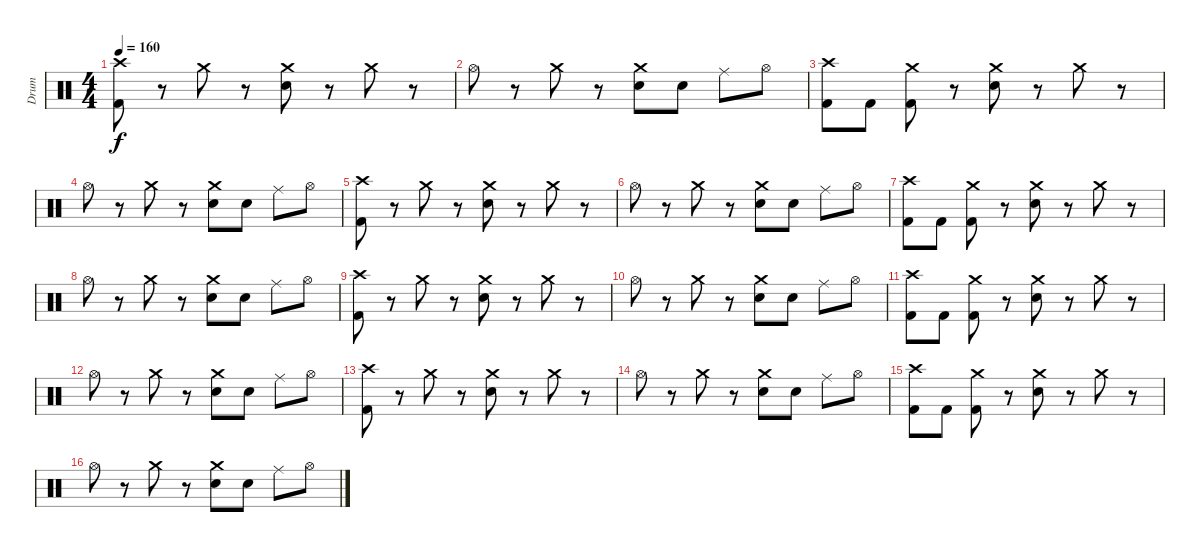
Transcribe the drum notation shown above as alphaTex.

\track ("Drum" "Drum") {instrument percussion}
\staff {score}
\articulation defaults
\ts (4 4)
\tempo 160
\clef neutral
\ks c
("Crash high (hit)" "Kick (hit) 2").8{dy f} r.8 "Crash medium (hit)".8 r.8 ("Crash medium (hit)" "Electric Snare (hit)").8 r.8 "Crash medium (hit)".8 r.8 |
"Hi-Hat (open)".8 r.8 "Crash medium (hit)".8 r.8 ("Crash medium (hit)" "Electric Snare (hit)").8 "Electric Snare (hit)".8 "Ride (middle)".8 "Hi-Hat (open)".8 |
("Crash high (hit)" "Kick (hit) 2").8 "Kick (hit) 2".8 ("Crash medium (hit)" "Kick (hit) 2").8 r.8 ("Crash medium (hit)" "Electric Snare (hit)").8 r.8 "Crash medium (hit)".8 r.8 |
"Hi-Hat (open)".8 r.8 "Crash medium (hit)".8 r.8 ("Crash medium (hit)" "Electric Snare (hit)").8 "Electric Snare (hit)".8 "Ride (middle)".8 "Hi-Hat (open)".8 |
("Crash high (hit)" "Kick (hit) 2").8 r.8 "Crash medium (hit)".8 r.8 ("Crash medium (hit)" "Electric Snare (hit)").8 r.8 "Crash medium (hit)".8 r.8 |
"Hi-Hat (open)".8 r.8 "Crash medium (hit)".8 r.8 ("Crash medium (hit)" "Electric Snare (hit)").8 "Electric Snare (hit)".8 "Ride (middle)".8 "Hi-Hat (open)".8 |
("Crash high (hit)" "Kick (hit) 2").8 "Kick (hit) 2".8 ("Crash medium (hit)" "Kick (hit) 2").8 r.8 ("Crash medium (hit)" "Electric Snare (hit)").8 r.8 "Crash medium (hit)".8 r.8 |
"Hi-Hat (open)".8 r.8 "Crash medium (hit)".8 r.8 ("Crash medium (hit)" "Electric Snare (hit)").8 "Electric Snare (hit)".8 "Ride (middle)".8 "Hi-Hat (open)".8 |
("Crash high (hit)" "Kick (hit) 2").8 r.8 "Crash medium (hit)".8 r.8 ("Crash medium (hit)" "Electric Snare (hit)").8 r.8 "Crash medium (hit)".8 r.8 |
"Hi-Hat (open)".8 r.8 "Crash medium (hit)".8 r.8 ("Crash medium (hit)" "Electric Snare (hit)").8 "Electric Snare (hit)".8 "Ride (middle)".8 "Hi-Hat (open)".8 |
("Crash high (hit)" "Kick (hit) 2").8 "Kick (hit) 2".8 ("Crash medium (hit)" "Kick (hit) 2").8 r.8 ("Crash medium (hit)" "Electric Snare (hit)").8 r.8 "Crash medium (hit)".8 r.8 |
"Hi-Hat (open)".8 r.8 "Crash medium (hit)".8 r.8 ("Crash medium (hit)" "Electric Snare (hit)").8 "Electric Snare (hit)".8 "Ride (middle)".8 "Hi-Hat (open)".8 |
("Crash high (hit)" "Kick (hit) 2").8 r.8 "Crash medium (hit)".8 r.8 ("Crash medium (hit)" "Electric Snare (hit)").8 r.8 "Crash medium (hit)".8 r.8 |
"Hi-Hat (open)".8 r.8 "Crash medium (hit)".8 r.8 ("Crash medium (hit)" "Electric Snare (hit)").8 "Electric Snare (hit)".8 "Ride (middle)".8 "Hi-Hat (open)".8 |
("Crash high (hit)" "Kick (hit) 2").8 "Kick (hit) 2".8 ("Crash medium (hit)" "Kick (hit) 2").8 r.8 ("Crash medium (hit)" "Electric Snare (hit)").8 r.8 "Crash medium (hit)".8 r.8 |
"Hi-Hat (open)".8 r.8 "Crash medium (hit)".8 r.8 ("Crash medium (hit)" "Electric Snare (hit)").8 "Electric Snare (hit)".8 "Ride (middle)".8 "Hi-Hat (open)".8
